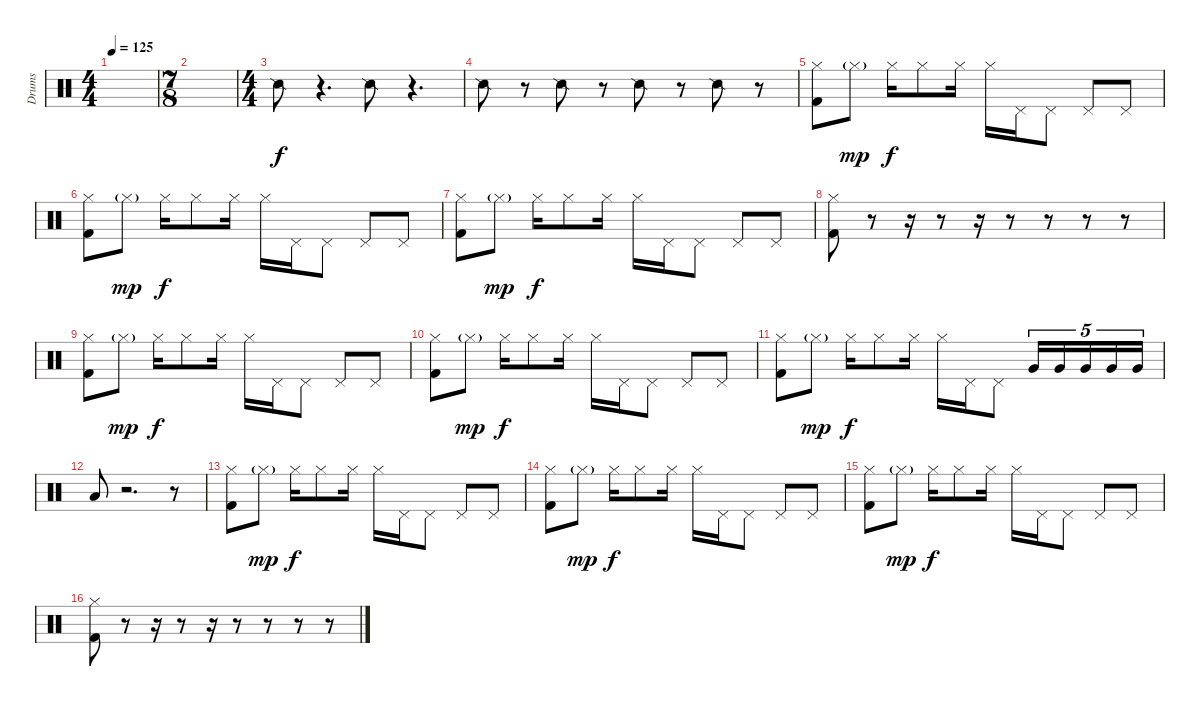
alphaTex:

\track ("Drums" "Drums") {instrument percussion}
\staff {score}
\articulation defaults
\ts (4 4)
\tempo 125
\clef neutral
\ks c
|
\ts (7 8)
|
\ts (4 4)
"Snare (side stick) 2".8 r.4{d} "Snare (side stick) 2".8 r.4{d} |
"Snare (side stick) 2".8 r.8 "Snare (side stick) 2".8 r.8 "Snare (side stick) 2".8 r.8 "Snare (side stick) 2".8 r.8 |
("Kick (hit) 2" "Hi-Hat (closed)").8 "Hi-Hat (closed)"{g}.8{dy mp} "Hi-Hat (closed)".16{dy f} "Hi-Hat (closed)".8 "Hi-Hat (closed)".16 "Hi-Hat (closed)".16 "Pedal Hi-Hat (hit)".16 "Pedal Hi-Hat (hit)".8 "Pedal Hi-Hat (hit)".8 "Pedal Hi-Hat (hit)".8 |
("Kick (hit) 2" "Hi-Hat (closed)").8 "Hi-Hat (closed)"{g}.8{dy mp} "Hi-Hat (closed)".16{dy f} "Hi-Hat (closed)".8 "Hi-Hat (closed)".16 "Hi-Hat (closed)".16 "Pedal Hi-Hat (hit)".16 "Pedal Hi-Hat (hit)".8 "Pedal Hi-Hat (hit)".8 "Pedal Hi-Hat (hit)".8 |
("Kick (hit) 2" "Hi-Hat (closed)").8 "Hi-Hat (closed)"{g}.8{dy mp} "Hi-Hat (closed)".16{dy f} "Hi-Hat (closed)".8 "Hi-Hat (closed)".16 "Hi-Hat (closed)".16 "Pedal Hi-Hat (hit)".16 "Pedal Hi-Hat (hit)".8 "Pedal Hi-Hat (hit)".8 "Pedal Hi-Hat (hit)".8 |
("Kick (hit) 2" "Hi-Hat (closed)").8 r.8 r.16 r.8 r.16 r.8 r.8 r.8 r.8 |
("Kick (hit) 2" "Hi-Hat (closed)").8 "Hi-Hat (closed)"{g}.8{dy mp} "Hi-Hat (closed)".16{dy f} "Hi-Hat (closed)".8 "Hi-Hat (closed)".16 "Hi-Hat (closed)".16 "Pedal Hi-Hat (hit)".16 "Pedal Hi-Hat (hit)".8 "Pedal Hi-Hat (hit)".8 "Pedal Hi-Hat (hit)".8 |
("Kick (hit) 2" "Hi-Hat (closed)").8 "Hi-Hat (closed)"{g}.8{dy mp} "Hi-Hat (closed)".16{dy f} "Hi-Hat (closed)".8 "Hi-Hat (closed)".16 "Hi-Hat (closed)".16 "Pedal Hi-Hat (hit)".16 "Pedal Hi-Hat (hit)".8 "Pedal Hi-Hat (hit)".8 "Pedal Hi-Hat (hit)".8 |
("Kick (hit) 2" "Hi-Hat (closed)").8 "Hi-Hat (closed)"{g}.8{dy mp} "Hi-Hat (closed)".16{dy f} "Hi-Hat (closed)".8 "Hi-Hat (closed)".16 "Hi-Hat (closed)".16 "Pedal Hi-Hat (hit)".16 "Pedal Hi-Hat (hit)".8 "Very Low Tom (hit)".16{tu (5 4)} "Very Low Tom (hit)".16{tu (5 4)} "Very Low Tom (hit)".16{tu (5 4)} "Very Low Tom (hit)".16{tu (5 4)} "Very Low Tom (hit)".16{tu (5 4)} |
"Low Floor Tom (hit)".8 r.2{d} r.8 |
("Kick (hit) 2" "Hi-Hat (closed)").8 "Hi-Hat (closed)"{g}.8{dy mp} "Hi-Hat (closed)".16{dy f} "Hi-Hat (closed)".8 "Hi-Hat (closed)".16 "Hi-Hat (closed)".16 "Pedal Hi-Hat (hit)".16 "Pedal Hi-Hat (hit)".8 "Pedal Hi-Hat (hit)".8 "Pedal Hi-Hat (hit)".8 |
("Kick (hit) 2" "Hi-Hat (closed)").8 "Hi-Hat (closed)"{g}.8{dy mp} "Hi-Hat (closed)".16{dy f} "Hi-Hat (closed)".8 "Hi-Hat (closed)".16 "Hi-Hat (closed)".16 "Pedal Hi-Hat (hit)".16 "Pedal Hi-Hat (hit)".8 "Pedal Hi-Hat (hit)".8 "Pedal Hi-Hat (hit)".8 |
("Kick (hit) 2" "Hi-Hat (closed)").8 "Hi-Hat (closed)"{g}.8{dy mp} "Hi-Hat (closed)".16{dy f} "Hi-Hat (closed)".8 "Hi-Hat (closed)".16 "Hi-Hat (closed)".16 "Pedal Hi-Hat (hit)".16 "Pedal Hi-Hat (hit)".8 "Pedal Hi-Hat (hit)".8 "Pedal Hi-Hat (hit)".8 |
("Kick (hit) 2" "Hi-Hat (closed)").8 r.8 r.16 r.8 r.16 r.8 r.8 r.8 r.8
